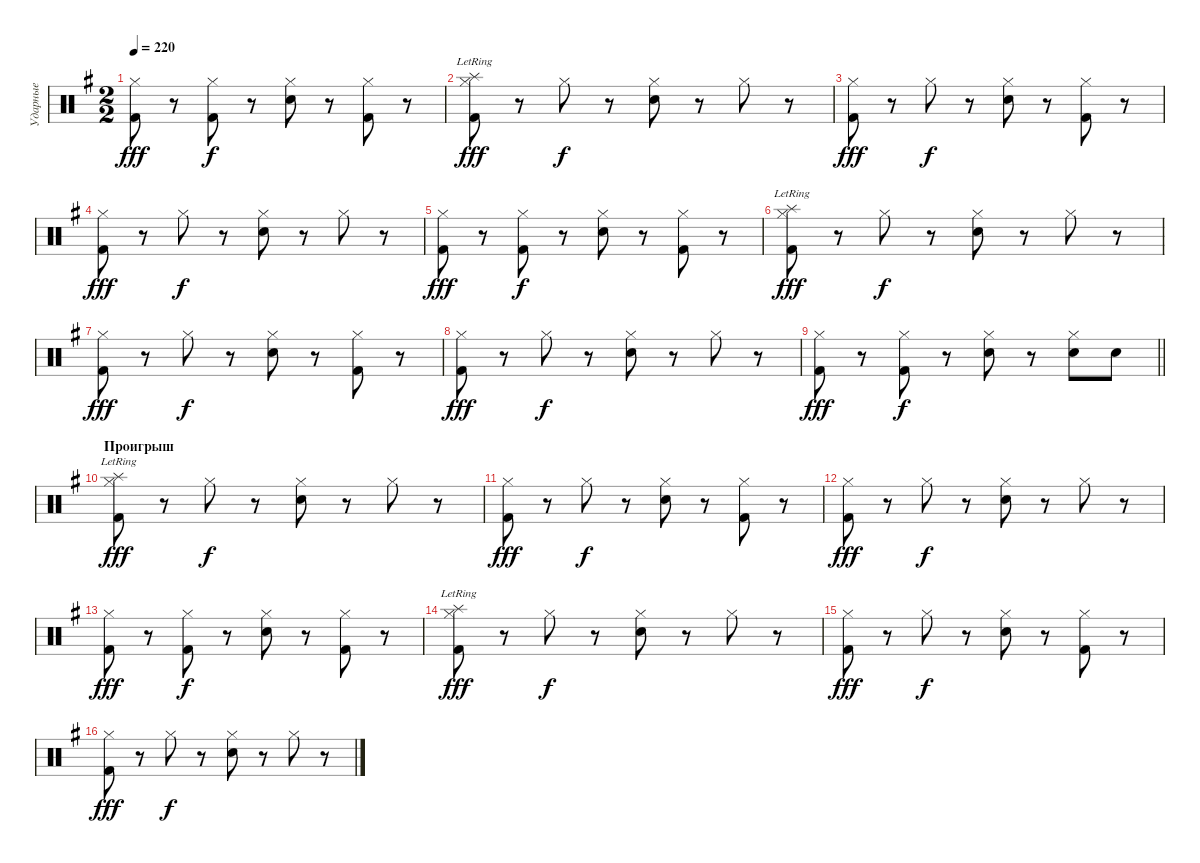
\track ("Ударные" "Ударные") {instrument percussion}
\staff {score}
\articulation defaults
\ts (2 2)
\tempo 220
\clef neutral
\ks eminor
("Hi-Hat (closed)" "Kick (hit) 2").8{dy fff} r.8 ("Hi-Hat (closed)" "Kick (hit) 2").8{dy f} r.8 ("Hi-Hat (closed)" "Snare (hit) 2").8 r.8 ("Hi-Hat (closed)" "Kick (hit) 2").8 r.8 |
("Hi-Hat (closed)" "Splash (hit)"{lr} "Kick (hit) 2").8{dy fff} r.8 "Hi-Hat (closed)".8{dy f} r.8 ("Hi-Hat (closed)" "Snare (hit) 2").8 r.8 "Hi-Hat (closed)".8 r.8 |
("Hi-Hat (closed)" "Kick (hit) 2").8{dy fff} r.8 "Hi-Hat (closed)".8{dy f} r.8 ("Hi-Hat (closed)" "Snare (hit) 2").8 r.8 ("Hi-Hat (closed)" "Kick (hit) 2").8 r.8 |
("Hi-Hat (closed)" "Kick (hit) 2").8{dy fff} r.8 "Hi-Hat (closed)".8{dy f} r.8 ("Hi-Hat (closed)" "Snare (hit) 2").8 r.8 "Hi-Hat (closed)".8 r.8 |
("Hi-Hat (closed)" "Kick (hit) 2").8{dy fff} r.8 ("Hi-Hat (closed)" "Kick (hit) 2").8{dy f} r.8 ("Hi-Hat (closed)" "Snare (hit) 2").8 r.8 ("Hi-Hat (closed)" "Kick (hit) 2").8 r.8 |
("Hi-Hat (closed)" "Splash (hit)"{lr} "Kick (hit) 2").8{dy fff} r.8 "Hi-Hat (closed)".8{dy f} r.8 ("Hi-Hat (closed)" "Snare (hit) 2").8 r.8 "Hi-Hat (closed)".8 r.8 |
("Hi-Hat (closed)" "Kick (hit) 2").8{dy fff} r.8 "Hi-Hat (closed)".8{dy f} r.8 ("Hi-Hat (closed)" "Snare (hit) 2").8 r.8 ("Hi-Hat (closed)" "Kick (hit) 2").8 r.8 |
("Hi-Hat (closed)" "Kick (hit) 2").8{dy fff} r.8 "Hi-Hat (closed)".8{dy f} r.8 ("Hi-Hat (closed)" "Snare (hit) 2").8 r.8 "Hi-Hat (closed)".8 r.8 |
\barLineRight lightlight
("Hi-Hat (closed)" "Kick (hit) 2").8{dy fff} r.8 ("Hi-Hat (closed)" "Kick (hit) 2").8{dy f} r.8 ("Hi-Hat (closed)" "Snare (hit) 2").8 r.8 ("Hi-Hat (closed)" "Snare (hit) 2").8 "Snare (hit) 2".8 |
\section ("" "Проигрыш")
("Hi-Hat (closed)" "Splash (hit)"{lr} "Kick (hit) 2").8{dy fff} r.8 "Hi-Hat (closed)".8{dy f} r.8 ("Hi-Hat (closed)" "Snare (hit) 2").8 r.8 "Hi-Hat (closed)".8 r.8 |
("Hi-Hat (closed)" "Kick (hit) 2").8{dy fff} r.8 "Hi-Hat (closed)".8{dy f} r.8 ("Hi-Hat (closed)" "Snare (hit) 2").8 r.8 ("Hi-Hat (closed)" "Kick (hit) 2").8 r.8 |
("Hi-Hat (closed)" "Kick (hit) 2").8{dy fff} r.8 "Hi-Hat (closed)".8{dy f} r.8 ("Hi-Hat (closed)" "Snare (hit) 2").8 r.8 "Hi-Hat (closed)".8 r.8 |
("Hi-Hat (closed)" "Kick (hit) 2").8{dy fff} r.8 ("Hi-Hat (closed)" "Kick (hit) 2").8{dy f} r.8 ("Hi-Hat (closed)" "Snare (hit) 2").8 r.8 ("Hi-Hat (closed)" "Kick (hit) 2").8 r.8 |
("Hi-Hat (closed)" "Splash (hit)"{lr} "Kick (hit) 2").8{dy fff} r.8 "Hi-Hat (closed)".8{dy f} r.8 ("Hi-Hat (closed)" "Snare (hit) 2").8 r.8 "Hi-Hat (closed)".8 r.8 |
("Hi-Hat (closed)" "Kick (hit) 2").8{dy fff} r.8 "Hi-Hat (closed)".8{dy f} r.8 ("Hi-Hat (closed)" "Snare (hit) 2").8 r.8 ("Hi-Hat (closed)" "Kick (hit) 2").8 r.8 |
("Hi-Hat (closed)" "Kick (hit) 2").8{dy fff} r.8 "Hi-Hat (closed)".8{dy f} r.8 ("Hi-Hat (closed)" "Snare (hit) 2").8 r.8 "Hi-Hat (closed)".8 r.8
